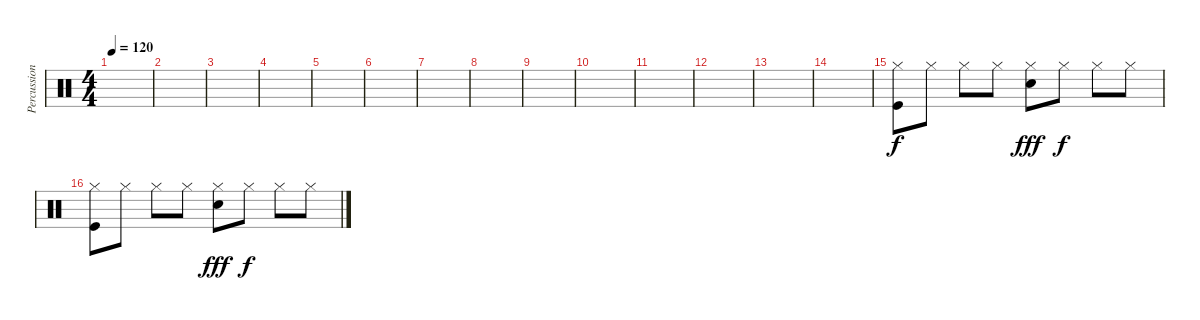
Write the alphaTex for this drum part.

\track ("Percussions" "Percussion") {instrument percussion}
\staff {score}
\articulation defaults
\ts (4 4)
\tempo 120
\clef neutral
\ks c
|
|
|
|
|
|
|
|
|
|
|
|
|
|
("Hi-Hat (closed)" "Kick (hit)").8 "Hi-Hat (closed)".8 "Hi-Hat (closed)".8 "Hi-Hat (closed)".8 ("Hi-Hat (closed)" "Snare (hit) 2").8{dy fff} "Hi-Hat (closed)".8{dy f} "Hi-Hat (closed)".8 "Hi-Hat (closed)".8 |
("Hi-Hat (closed)" "Kick (hit)").8 "Hi-Hat (closed)".8 "Hi-Hat (closed)".8 "Hi-Hat (closed)".8 ("Hi-Hat (closed)" "Snare (hit) 2").8{dy fff} "Hi-Hat (closed)".8{dy f} "Hi-Hat (closed)".8 "Hi-Hat (closed)".8
